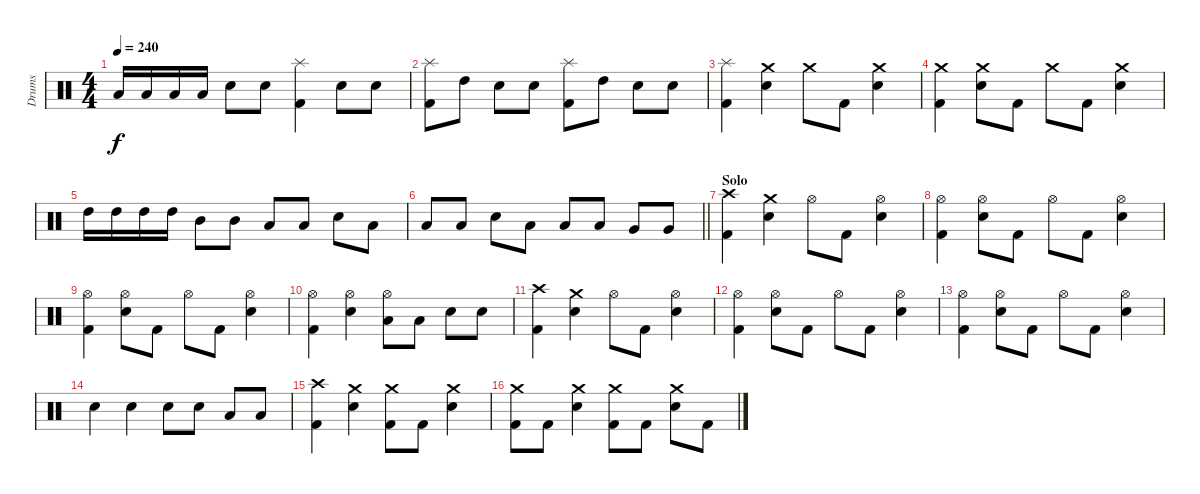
\track ("Drums" "Drums") {instrument percussion}
\staff {score}
\articulation defaults
\ts (4 4)
\tempo 240
\clef neutral
\ks c "Low Tom (hit)".16{dy f} "Low Tom (hit)".16 "Low Tom (hit)".16 "Low Tom (hit)".16 "Snare (hit) 2".8 "Snare (hit) 2".8
("Splash (hit)" "Kick (hit) 2").4 "Snare (hit) 2".8 "Snare (hit) 2".8 |
("Splash (hit)" "Kick (hit) 2").8 "High Tom (hit)".8 "Snare (hit) 2".8 "Snare (hit) 2".8 ("Splash (hit)" "Kick (hit) 2").8 "High Tom (hit)".8 "Snare (hit) 2".8 "Snare (hit) 2".8 |
("Splash (hit)" "Kick (hit) 2").4 ("Crash medium (hit)" "Snare (hit) 2").4 "Crash medium (hit)".8 "Kick (hit) 2".8 ("Crash medium (hit)" "Snare (hit) 2").4 |
("Crash medium (hit)" "Kick (hit) 2").4 ("Crash medium (hit)" "Snare (hit) 2").8 "Kick (hit) 2".8 "Crash medium (hit)".8 "Kick (hit) 2".8 ("Crash medium (hit)" "Snare (hit) 2").4 |
"High Tom (hit)".16 "High Tom (hit)".16 "High Tom (hit)".16 "High Tom (hit)".16 "Mid Tom (hit)".8 "Mid Tom (hit)".8 "Low Tom (hit)".8 "Low Tom (hit)".8 "Snare (hit) 2".8 "Low Tom (hit)".8 |
\barLineRight lightlight "Low Tom (hit)".8 "Low Tom (hit)".8 "Snare (hit) 2".8 "Low Tom (hit)".8 "Low Tom (hit)".8 "Low Tom (hit)".8 "Very Low Tom (hit)".8 "Very Low Tom (hit)".8
|
\section ("" "Solo")
("Crash high (hit)" "Kick (hit) 2").4 ("Crash medium (hit)" "Snare (hit) 2").4 "Hi-Hat (open)".8 "Kick (hit) 2".8 ("Hi-Hat (open)" "Snare (hit) 2").4 |
("Hi-Hat (open)" "Kick (hit) 2").4 ("Hi-Hat (open)" "Snare (hit) 2").8 "Kick (hit) 2".8 "Hi-Hat (open)".8 "Kick (hit) 2".8 ("Hi-Hat (open)" "Snare (hit) 2").4 |
("Hi-Hat (open)" "Kick (hit) 2").4 ("Hi-Hat (open)" "Snare (hit) 2").8 "Kick (hit) 2".8 "Hi-Hat (open)".8 "Kick (hit) 2".8 ("Hi-Hat (open)" "Snare (hit) 2").4 |
("Hi-Hat (open)" "Kick (hit) 2").4 ("Hi-Hat (open)" "Snare (hit) 2").4 ("Hi-Hat (open)" "Low Tom (hit)").8 "Low Tom (hit)".8 "Snare (hit) 2".8 "Snare (hit) 2".8 |
("Crash high (hit)" "Kick (hit) 2").4 ("Crash medium (hit)" "Snare (hit) 2").4 "Hi-Hat (open)".8 "Kick (hit) 2".8 ("Hi-Hat (open)" "Snare (hit) 2").4 |
("Hi-Hat (open)" "Kick (hit) 2").4 ("Hi-Hat (open)" "Snare (hit) 2").8 "Kick (hit) 2".8 "Hi-Hat (open)".8 "Kick (hit) 2".8 ("Hi-Hat (open)" "Snare (hit) 2").4 |
("Hi-Hat (open)" "Kick (hit) 2").4 ("Hi-Hat (open)" "Snare (hit) 2").8 "Kick (hit) 2".8 "Hi-Hat (open)".8 "Kick (hit) 2".8 ("Hi-Hat (open)" "Snare (hit) 2").4 |
"Snare (hit) 2".4 "Snare (hit) 2".4 "Snare (hit) 2".8 "Snare (hit) 2".8 "Low Tom (hit)".8 "Low Tom (hit)".8 |
("Crash high (hit)" "Kick (hit) 2").4 ("Crash medium (hit)" "Snare (hit) 2").4 ("Crash medium (hit)" "Kick (hit) 2").8 "Kick (hit) 2".8 ("Crash medium (hit)" "Snare (hit) 2").4 |
("Crash medium (hit)" "Kick (hit) 2").8 "Kick (hit) 2".8 ("Crash medium (hit)" "Snare (hit) 2").4 ("Crash medium (hit)" "Kick (hit) 2").8 "Kick (hit) 2".8 ("Crash medium (hit)" "Snare (hit) 2").8 "Kick (hit) 2".8
